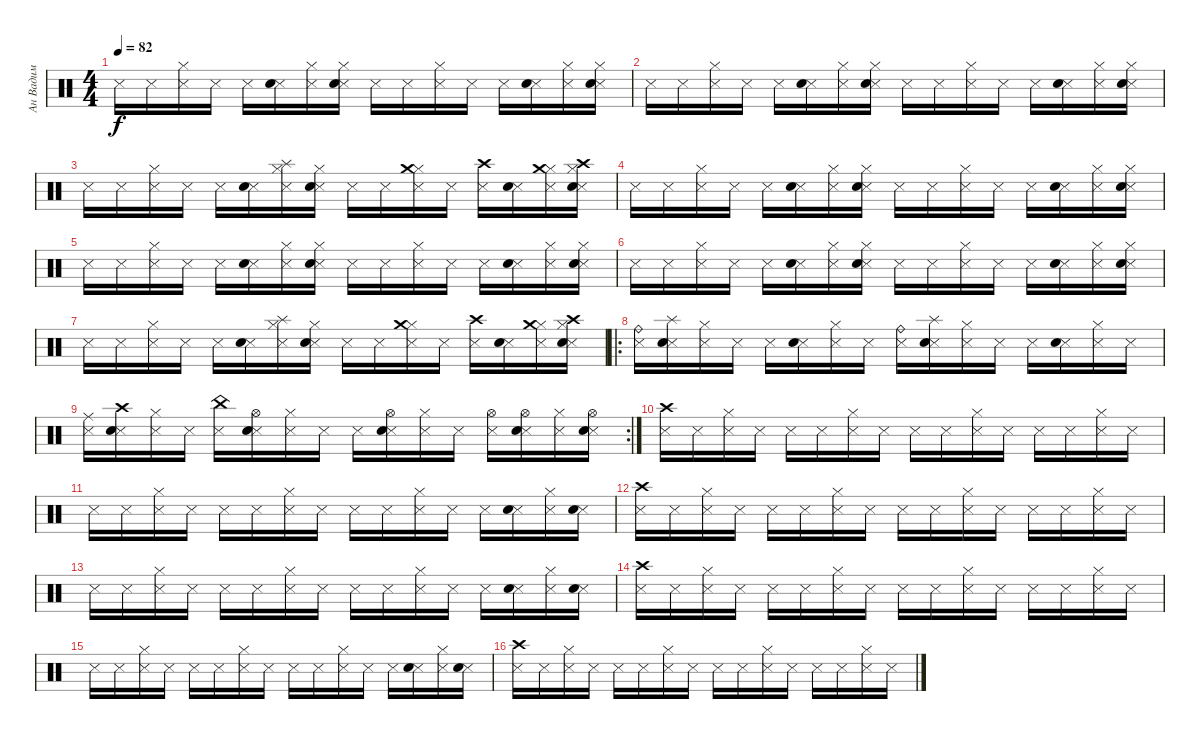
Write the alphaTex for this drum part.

\track ("Ан Вадим" "Ан Вадим") {instrument percussion}
\staff {score}
\articulation defaults
\ts (4 4)
\tempo 82
\clef neutral
\ks c "Snare (side stick) 3".16{dy f} "Snare (side stick) 3".16
("Snare (side stick) 3" "Hi-Hat (closed)").16 "Snare (side stick) 3".16 "Snare (side stick) 3".16 ("Snare (side stick) 3" "Snare (hit) 2").16 ("Snare (side stick) 3" "Hi-Hat (closed)").16 ("Snare (side stick) 3" "Hi-Hat (closed)" "Snare (hit) 2").16 "Snare (side stick) 3".16 "Snare (side stick) 3".16 ("Snare (side stick) 3" "Hi-Hat (closed)").16 "Snare (side stick) 3".16 "Snare (side stick) 3".16 ("Snare (side stick) 3" "Snare (hit) 2").16 ("Snare (side stick) 3" "Hi-Hat (closed)").16 ("Snare (side stick) 3" "Hi-Hat (closed)" "Snare (hit) 2").16 |
"Snare (side stick) 3".16 "Snare (side stick) 3".16 ("Snare (side stick) 3" "Hi-Hat (closed)").16 "Snare (side stick) 3".16 "Snare (side stick) 3".16 ("Snare (side stick) 3" "Snare (hit) 2").16 ("Snare (side stick) 3" "Hi-Hat (closed)").16 ("Snare (side stick) 3" "Hi-Hat (closed)" "Snare (hit) 2").16 "Snare (side stick) 3".16 "Snare (side stick) 3".16 ("Snare (side stick) 3" "Hi-Hat (closed)").16 "Snare (side stick) 3".16 "Snare (side stick) 3".16 ("Snare (side stick) 3" "Snare (hit) 2").16 ("Snare (side stick) 3" "Hi-Hat (closed)").16 ("Snare (side stick) 3" "Hi-Hat (closed)" "Snare (hit) 2").16 |
"Snare (side stick) 3".16 "Snare (side stick) 3".16 ("Snare (side stick) 3" "Hi-Hat (closed)").16 "Snare (side stick) 3".16 "Snare (side stick) 3".16 ("Snare (side stick) 3" "Snare (hit) 2").16 ("Snare (side stick) 3" "Hi-Hat (closed)" "Splash (hit)").16 ("Snare (side stick) 3" "Hi-Hat (closed)" "Snare (hit) 2").16 "Snare (side stick) 3".16 "Snare (side stick) 3".16 ("Snare (side stick) 3" "Hi-Hat (closed)" "Crash medium (hit)").16 "Snare (side stick) 3".16 ("Snare (side stick) 3" "Crash high (hit)").16 ("Snare (side stick) 3" "Snare (hit) 2").16 ("Snare (side stick) 3" "Hi-Hat (closed)" "Crash medium (hit)").16 ("Snare (side stick) 3" "Hi-Hat (closed)" "Snare (hit) 2" "Crash high (hit)").16 |
"Snare (side stick) 3".16 "Snare (side stick) 3".16 ("Snare (side stick) 3" "Hi-Hat (closed)").16 "Snare (side stick) 3".16 "Snare (side stick) 3".16 ("Snare (side stick) 3" "Snare (hit) 2").16 ("Snare (side stick) 3" "Hi-Hat (closed)").16 ("Snare (side stick) 3" "Hi-Hat (closed)" "Snare (hit) 2").16 "Snare (side stick) 3".16 "Snare (side stick) 3".16 ("Snare (side stick) 3" "Hi-Hat (closed)").16 "Snare (side stick) 3".16 "Snare (side stick) 3".16 ("Snare (side stick) 3" "Snare (hit) 2").16 ("Snare (side stick) 3" "Hi-Hat (closed)").16 ("Snare (side stick) 3" "Hi-Hat (closed)" "Snare (hit) 2").16 |
"Snare (side stick) 3".16 "Snare (side stick) 3".16 ("Snare (side stick) 3" "Hi-Hat (closed)").16 "Snare (side stick) 3".16 "Snare (side stick) 3".16 ("Snare (side stick) 3" "Snare (hit) 2").16 ("Snare (side stick) 3" "Hi-Hat (closed)").16 ("Snare (side stick) 3" "Hi-Hat (closed)" "Snare (hit) 2").16 "Snare (side stick) 3".16 "Snare (side stick) 3".16 ("Snare (side stick) 3" "Hi-Hat (closed)").16 "Snare (side stick) 3".16 "Snare (side stick) 3".16 ("Snare (side stick) 3" "Snare (hit) 2").16 ("Snare (side stick) 3" "Hi-Hat (closed)").16 ("Snare (side stick) 3" "Hi-Hat (closed)" "Snare (hit) 2").16 |
"Snare (side stick) 3".16 "Snare (side stick) 3".16 ("Snare (side stick) 3" "Hi-Hat (closed)").16 "Snare (side stick) 3".16 "Snare (side stick) 3".16 ("Snare (side stick) 3" "Snare (hit) 2").16 ("Snare (side stick) 3" "Hi-Hat (closed)").16 ("Snare (side stick) 3" "Hi-Hat (closed)" "Snare (hit) 2").16 "Snare (side stick) 3".16 "Snare (side stick) 3".16 ("Snare (side stick) 3" "Hi-Hat (closed)").16 "Snare (side stick) 3".16 "Snare (side stick) 3".16 ("Snare (side stick) 3" "Snare (hit) 2").16 ("Snare (side stick) 3" "Hi-Hat (closed)").16 ("Snare (side stick) 3" "Hi-Hat (closed)" "Snare (hit) 2").16 |
"Snare (side stick) 3".16 "Snare (side stick) 3".16 ("Snare (side stick) 3" "Hi-Hat (closed)").16 "Snare (side stick) 3".16 "Snare (side stick) 3".16 ("Snare (side stick) 3" "Snare (hit) 2").16 ("Snare (side stick) 3" "Hi-Hat (closed)" "Splash (hit)").16 ("Snare (side stick) 3" "Hi-Hat (closed)" "Snare (hit) 2").16 "Snare (side stick) 3".16 "Snare (side stick) 3".16 ("Snare (side stick) 3" "Hi-Hat (closed)" "Crash medium (hit)").16 "Snare (side stick) 3".16 ("Snare (side stick) 3" "Crash high (hit)").16 ("Snare (side stick) 3" "Snare (hit) 2").16 ("Snare (side stick) 3" "Hi-Hat (closed)" "Crash medium (hit)").16 ("Snare (side stick) 3" "Hi-Hat (closed)" "Snare (hit) 2" "Crash high (hit)").16 |
\ro
("Snare (side stick) 3" "Ride (bell)").16 ("Snare (side stick) 3" "Snare (hit) 2" "Splash (hit)").16 ("Snare (side stick) 3" "Hi-Hat (closed)").16 "Snare (side stick) 3".16 "Snare (side stick) 3".16 ("Snare (side stick) 3" "Snare (hit) 2").16 ("Snare (side stick) 3" "Hi-Hat (closed)").16 "Snare (side stick) 3".16 ("Snare (side stick) 3" "Ride (bell)").16 ("Snare (side stick) 3" "Snare (hit) 2" "Splash (hit)").16 ("Snare (side stick) 3" "Hi-Hat (closed)").16 "Snare (side stick) 3".16 "Snare (side stick) 3".16 ("Snare (side stick) 3" "Snare (hit) 2").16 ("Snare (side stick) 3" "Hi-Hat (closed)").16 "Snare (side stick) 3".16 |
\rc 2
("Snare (side stick) 3" "Ride (middle)").16 ("Snare (side stick) 3" "Snare (hit) 2" "Crash high (hit)").16 ("Snare (side stick) 3" "Hi-Hat (closed)").16 "Snare (side stick) 3".16 ("Snare (side stick) 3" "China (hit)").16 ("Snare (side stick) 3" "Snare (hit) 2" "Hi-Hat (open)").16 ("Snare (side stick) 3" "Hi-Hat (closed)").16 "Snare (side stick) 3".16 "Snare (side stick) 3".16 ("Snare (side stick) 3" "Snare (hit) 2" "Hi-Hat (open)").16 ("Snare (side stick) 3" "Hi-Hat (closed)").16 "Snare (side stick) 3".16 ("Snare (side stick) 3" "Hi-Hat (open)").16 ("Snare (side stick) 3" "Snare (hit) 2" "Hi-Hat (open)").16 ("Snare (side stick) 3" "Hi-Hat (closed)").16 ("Snare (side stick) 3" "Snare (hit) 2" "Hi-Hat (open)").16 |
("Snare (side stick) 3" "Crash high (hit)").16 "Snare (side stick) 3".16 ("Snare (side stick) 3" "Hi-Hat (closed)").16 "Snare (side stick) 3".16 "Snare (side stick) 3".16 "Snare (side stick) 3".16 ("Snare (side stick) 3" "Hi-Hat (closed)").16 "Snare (side stick) 3".16 "Snare (side stick) 3".16 "Snare (side stick) 3".16 ("Snare (side stick) 3" "Hi-Hat (closed)").16 "Snare (side stick) 3".16 "Snare (side stick) 3".16 "Snare (side stick) 3".16 ("Snare (side stick) 3" "Hi-Hat (closed)").16 "Snare (side stick) 3".16 |
"Snare (side stick) 3".16 "Snare (side stick) 3".16 ("Snare (side stick) 3" "Hi-Hat (closed)").16 "Snare (side stick) 3".16 "Snare (side stick) 3".16 "Snare (side stick) 3".16 ("Snare (side stick) 3" "Hi-Hat (closed)").16 "Snare (side stick) 3".16 "Snare (side stick) 3".16 "Snare (side stick) 3".16 ("Snare (side stick) 3" "Hi-Hat (closed)").16 "Snare (side stick) 3".16 "Snare (side stick) 3".16 ("Snare (side stick) 3" "Snare (hit) 2").16 ("Snare (side stick) 3" "Hi-Hat (closed)").16 ("Snare (side stick) 3" "Snare (hit) 2").16 |
("Snare (side stick) 3" "Crash high (hit)").16 "Snare (side stick) 3".16 ("Snare (side stick) 3" "Hi-Hat (closed)").16 "Snare (side stick) 3".16 "Snare (side stick) 3".16 "Snare (side stick) 3".16 ("Snare (side stick) 3" "Hi-Hat (closed)").16 "Snare (side stick) 3".16 "Snare (side stick) 3".16 "Snare (side stick) 3".16 ("Snare (side stick) 3" "Hi-Hat (closed)").16 "Snare (side stick) 3".16 "Snare (side stick) 3".16 "Snare (side stick) 3".16 ("Snare (side stick) 3" "Hi-Hat (closed)").16 "Snare (side stick) 3".16 |
"Snare (side stick) 3".16 "Snare (side stick) 3".16 ("Snare (side stick) 3" "Hi-Hat (closed)").16 "Snare (side stick) 3".16 "Snare (side stick) 3".16 "Snare (side stick) 3".16 ("Snare (side stick) 3" "Hi-Hat (closed)").16 "Snare (side stick) 3".16 "Snare (side stick) 3".16 "Snare (side stick) 3".16 ("Snare (side stick) 3" "Hi-Hat (closed)").16 "Snare (side stick) 3".16 "Snare (side stick) 3".16 ("Snare (side stick) 3" "Snare (hit) 2").16 ("Snare (side stick) 3" "Hi-Hat (closed)").16 ("Snare (side stick) 3" "Snare (hit) 2").16 |
("Snare (side stick) 3" "Crash high (hit)").16 "Snare (side stick) 3".16 ("Snare (side stick) 3" "Hi-Hat (closed)").16 "Snare (side stick) 3".16 "Snare (side stick) 3".16 "Snare (side stick) 3".16 ("Snare (side stick) 3" "Hi-Hat (closed)").16 "Snare (side stick) 3".16 "Snare (side stick) 3".16 "Snare (side stick) 3".16 ("Snare (side stick) 3" "Hi-Hat (closed)").16 "Snare (side stick) 3".16 "Snare (side stick) 3".16 "Snare (side stick) 3".16 ("Snare (side stick) 3" "Hi-Hat (closed)").16 "Snare (side stick) 3".16 |
"Snare (side stick) 3".16 "Snare (side stick) 3".16 ("Snare (side stick) 3" "Hi-Hat (closed)").16 "Snare (side stick) 3".16 "Snare (side stick) 3".16 "Snare (side stick) 3".16 ("Snare (side stick) 3" "Hi-Hat (closed)").16 "Snare (side stick) 3".16 "Snare (side stick) 3".16 "Snare (side stick) 3".16 ("Snare (side stick) 3" "Hi-Hat (closed)").16 "Snare (side stick) 3".16 "Snare (side stick) 3".16 ("Snare (side stick) 3" "Snare (hit) 2").16 ("Snare (side stick) 3" "Hi-Hat (closed)").16 ("Snare (side stick) 3" "Snare (hit) 2").16 |
("Snare (side stick) 3" "Crash high (hit)").16 "Snare (side stick) 3".16 ("Snare (side stick) 3" "Hi-Hat (closed)").16 "Snare (side stick) 3".16 "Snare (side stick) 3".16 "Snare (side stick) 3".16 ("Snare (side stick) 3" "Hi-Hat (closed)").16 "Snare (side stick) 3".16 "Snare (side stick) 3".16 "Snare (side stick) 3".16 ("Snare (side stick) 3" "Hi-Hat (closed)").16 "Snare (side stick) 3".16 "Snare (side stick) 3".16 "Snare (side stick) 3".16 ("Snare (side stick) 3" "Hi-Hat (closed)").16 "Snare (side stick) 3".16
